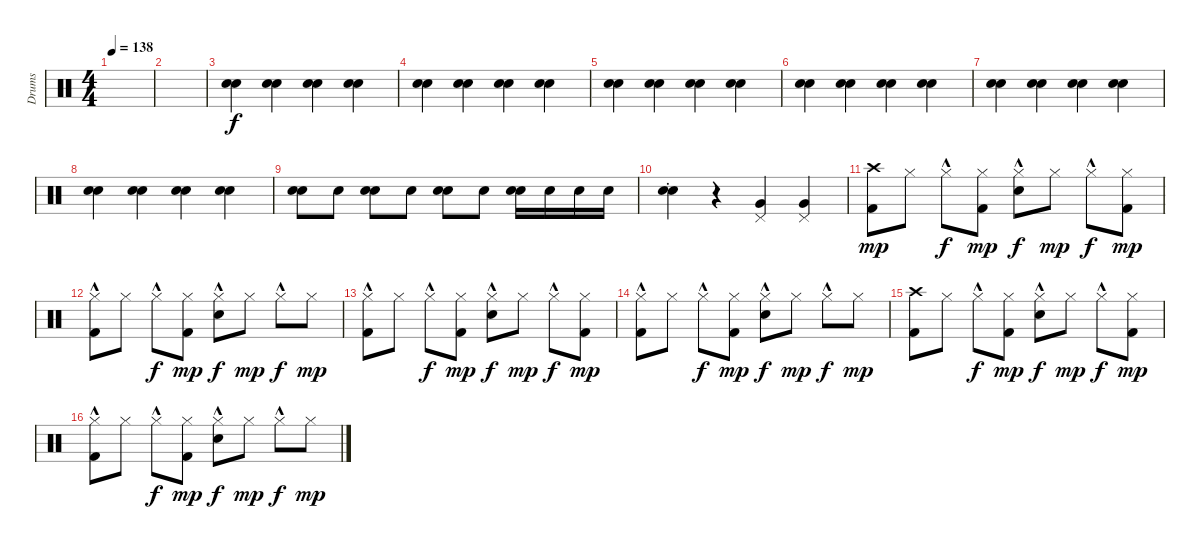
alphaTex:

\track ("Drums" "Drums") {instrument percussion}
\staff {score}
\articulation defaults
\ts (4 4)
\tempo 138
\clef neutral
\ks c
|
|
("Snare (hit) 2" "Hand Clap (hit)").4 ("Snare (hit) 2" "Hand Clap (hit)").4 ("Snare (hit) 2" "Hand Clap (hit)").4 ("Snare (hit) 2" "Hand Clap (hit)").4 |
("Snare (hit) 2" "Hand Clap (hit)").4 ("Snare (hit) 2" "Hand Clap (hit)").4 ("Snare (hit) 2" "Hand Clap (hit)").4 ("Snare (hit) 2" "Hand Clap (hit)").4 |
("Snare (hit) 2" "Hand Clap (hit)").4 ("Snare (hit) 2" "Hand Clap (hit)").4 ("Snare (hit) 2" "Hand Clap (hit)").4 ("Snare (hit) 2" "Hand Clap (hit)").4 |
("Snare (hit) 2" "Hand Clap (hit)").4 ("Snare (hit) 2" "Hand Clap (hit)").4 ("Snare (hit) 2" "Hand Clap (hit)").4 ("Snare (hit) 2" "Hand Clap (hit)").4 |
("Snare (hit) 2" "Hand Clap (hit)").4 ("Snare (hit) 2" "Hand Clap (hit)").4 ("Snare (hit) 2" "Hand Clap (hit)").4 ("Snare (hit) 2" "Hand Clap (hit)").4 |
("Snare (hit) 2" "Hand Clap (hit)").4 ("Snare (hit) 2" "Hand Clap (hit)").4 ("Snare (hit) 2" "Hand Clap (hit)").4 ("Snare (hit) 2" "Hand Clap (hit)").4 |
("Snare (hit) 2" "Hand Clap (hit)").8 "Snare (hit) 2".8 ("Snare (hit) 2" "Hand Clap (hit)").8 "Snare (hit) 2".8 ("Snare (hit) 2" "Hand Clap (hit)").8 "Snare (hit) 2".8 ("Snare (hit) 2" "Hand Clap (hit)").16 "Snare (hit) 2".16 "Snare (hit) 2".16 "Snare (hit) 2".16 |
("Snare (hit) 2" "Hand Clap (hit)"{st}).4 r.4 ("Very Low Tom (hit)" "Pedal Hi-Hat (hit)").4{dy f} ("Very Low Tom (hit)" "Pedal Hi-Hat (hit)").4 |
("Crash high (hit)" "Kick (hit) 2").8{dy mp} "Hi-Hat (closed)".8 "Hi-Hat (closed)"{hac}.8{dy f} ("Hi-Hat (closed)" "Kick (hit) 2").8{dy mp} ("Hi-Hat (closed)"{hac} "Hand Clap (hit)").8{dy f} "Hi-Hat (closed)".8{dy mp} "Hi-Hat (closed)"{hac}.8{dy f} ("Hi-Hat (closed)" "Kick (hit) 2").8{dy mp} |
("Hi-Hat (closed)"{hac} "Kick (hit) 2").8 "Hi-Hat (closed)".8 "Hi-Hat (closed)"{hac}.8{dy f} ("Hi-Hat (closed)" "Kick (hit) 2").8{dy mp} ("Hi-Hat (closed)"{hac} "Hand Clap (hit)").8{dy f} "Hi-Hat (closed)".8{dy mp} "Hi-Hat (closed)"{hac}.8{dy f} "Hi-Hat (closed)".8{dy mp} |
("Hi-Hat (closed)"{hac} "Kick (hit) 2").8 "Hi-Hat (closed)".8 "Hi-Hat (closed)"{hac}.8{dy f} ("Hi-Hat (closed)" "Kick (hit) 2").8{dy mp} ("Hi-Hat (closed)"{hac} "Hand Clap (hit)").8{dy f} "Hi-Hat (closed)".8{dy mp} "Hi-Hat (closed)"{hac}.8{dy f} ("Hi-Hat (closed)" "Kick (hit) 2").8{dy mp} |
("Hi-Hat (closed)"{hac} "Kick (hit) 2").8 "Hi-Hat (closed)".8 "Hi-Hat (closed)"{hac}.8{dy f} ("Hi-Hat (closed)" "Kick (hit) 2").8{dy mp} ("Hi-Hat (closed)"{hac} "Hand Clap (hit)").8{dy f} "Hi-Hat (closed)".8{dy mp} "Hi-Hat (closed)"{hac}.8{dy f} "Hi-Hat (closed)".8{dy mp} |
("Crash high (hit)" "Kick (hit) 2").8 "Hi-Hat (closed)".8 "Hi-Hat (closed)"{hac}.8{dy f} ("Hi-Hat (closed)" "Kick (hit) 2").8{dy mp} ("Hi-Hat (closed)"{hac} "Hand Clap (hit)").8{dy f} "Hi-Hat (closed)".8{dy mp} "Hi-Hat (closed)"{hac}.8{dy f} ("Hi-Hat (closed)" "Kick (hit) 2").8{dy mp} |
("Hi-Hat (closed)"{hac} "Kick (hit) 2").8 "Hi-Hat (closed)".8 "Hi-Hat (closed)"{hac}.8{dy f} ("Hi-Hat (closed)" "Kick (hit) 2").8{dy mp} ("Hi-Hat (closed)"{hac} "Hand Clap (hit)").8{dy f} "Hi-Hat (closed)".8{dy mp} "Hi-Hat (closed)"{hac}.8{dy f} "Hi-Hat (closed)".8{dy mp}
